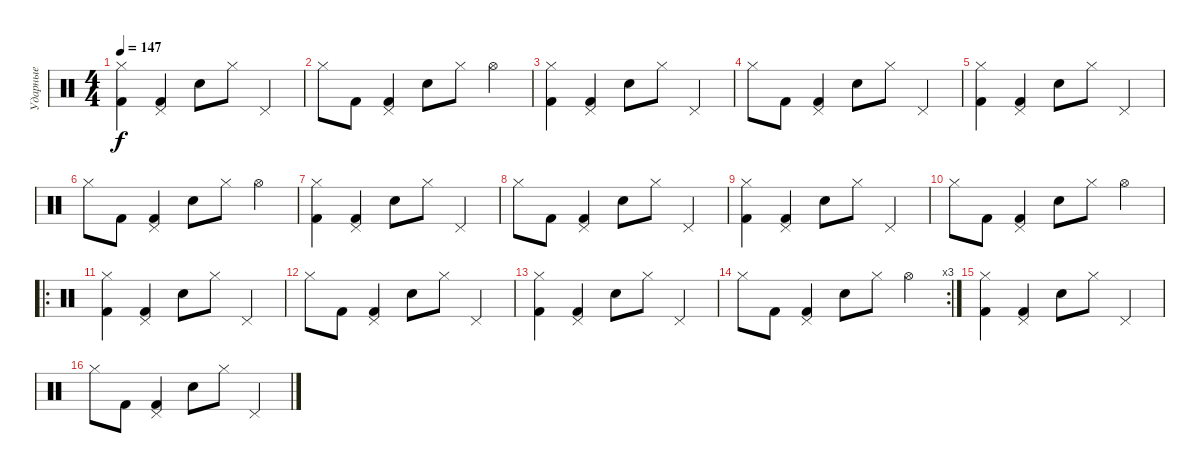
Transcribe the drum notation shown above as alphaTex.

\track ("Ударные" "Ударные") {instrument percussion}
\staff {score}
\articulation defaults
\ts (4 4)
\tempo 147
\clef neutral
\ks c
("Hi-Hat (closed)" "Kick (hit) 2").4{dy f} ("Pedal Hi-Hat (hit)" "Kick (hit) 2").4 "Electric Snare (hit)".8 "Hi-Hat (closed)".8 "Pedal Hi-Hat (hit)".4 |
"Hi-Hat (closed)".8 "Kick (hit) 2".8 ("Pedal Hi-Hat (hit)" "Kick (hit) 2").4 "Electric Snare (hit)".8 "Hi-Hat (closed)".8 "Hi-Hat (open)".4 |
("Hi-Hat (closed)" "Kick (hit) 2").4 ("Pedal Hi-Hat (hit)" "Kick (hit) 2").4 "Electric Snare (hit)".8 "Hi-Hat (closed)".8 "Pedal Hi-Hat (hit)".4 |
"Hi-Hat (closed)".8 "Kick (hit) 2".8 ("Pedal Hi-Hat (hit)" "Kick (hit) 2").4 "Electric Snare (hit)".8 "Hi-Hat (closed)".8 "Pedal Hi-Hat (hit)".4 |
("Hi-Hat (closed)" "Kick (hit) 2").4 ("Pedal Hi-Hat (hit)" "Kick (hit) 2").4 "Electric Snare (hit)".8 "Hi-Hat (closed)".8 "Pedal Hi-Hat (hit)".4 |
"Hi-Hat (closed)".8 "Kick (hit) 2".8 ("Pedal Hi-Hat (hit)" "Kick (hit) 2").4 "Electric Snare (hit)".8 "Hi-Hat (closed)".8 "Hi-Hat (open)".4 |
("Hi-Hat (closed)" "Kick (hit) 2").4 ("Pedal Hi-Hat (hit)" "Kick (hit) 2").4 "Electric Snare (hit)".8 "Hi-Hat (closed)".8 "Pedal Hi-Hat (hit)".4 |
"Hi-Hat (closed)".8 "Kick (hit) 2".8 ("Pedal Hi-Hat (hit)" "Kick (hit) 2").4 "Electric Snare (hit)".8 "Hi-Hat (closed)".8 "Pedal Hi-Hat (hit)".4 |
("Hi-Hat (closed)" "Kick (hit) 2").4 ("Pedal Hi-Hat (hit)" "Kick (hit) 2").4 "Electric Snare (hit)".8 "Hi-Hat (closed)".8 "Pedal Hi-Hat (hit)".4 |
"Hi-Hat (closed)".8 "Kick (hit) 2".8 ("Pedal Hi-Hat (hit)" "Kick (hit) 2").4 "Electric Snare (hit)".8 "Hi-Hat (closed)".8 "Hi-Hat (open)".4 |
\ro
("Hi-Hat (closed)" "Kick (hit) 2").4 ("Pedal Hi-Hat (hit)" "Kick (hit) 2").4 "Electric Snare (hit)".8 "Hi-Hat (closed)".8 "Pedal Hi-Hat (hit)".4 |
"Hi-Hat (closed)".8 "Kick (hit) 2".8 ("Pedal Hi-Hat (hit)" "Kick (hit) 2").4 "Electric Snare (hit)".8 "Hi-Hat (closed)".8 "Pedal Hi-Hat (hit)".4 |
("Hi-Hat (closed)" "Kick (hit) 2").4 ("Pedal Hi-Hat (hit)" "Kick (hit) 2").4 "Electric Snare (hit)".8 "Hi-Hat (closed)".8 "Pedal Hi-Hat (hit)".4 |
\rc 3 "Hi-Hat (closed)".8 "Kick (hit) 2".8
("Pedal Hi-Hat (hit)" "Kick (hit) 2").4 "Electric Snare (hit)".8 "Hi-Hat (closed)".8 "Hi-Hat (open)".4 |
("Hi-Hat (closed)" "Kick (hit) 2").4 ("Pedal Hi-Hat (hit)" "Kick (hit) 2").4 "Electric Snare (hit)".8 "Hi-Hat (closed)".8 "Pedal Hi-Hat (hit)".4 |
"Hi-Hat (closed)".8 "Kick (hit) 2".8 ("Pedal Hi-Hat (hit)" "Kick (hit) 2").4 "Electric Snare (hit)".8 "Hi-Hat (closed)".8 "Pedal Hi-Hat (hit)".4
